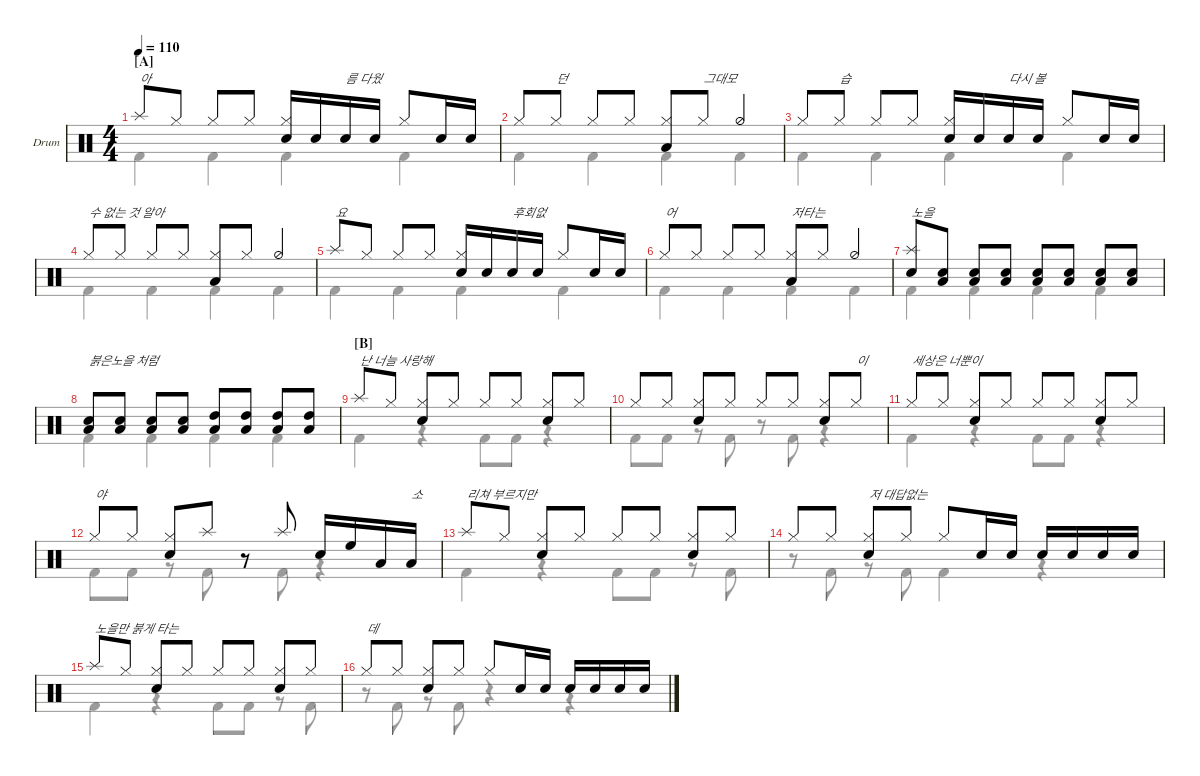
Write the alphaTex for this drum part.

\defaultSystemsLayout 4
\hideDynamics
\bracketExtendMode nobrackets
\firstSystemTrackNameOrientation horizontal
\track ("Drumkit" "Drum") {instrument percussion}
\staff {score}
\articulation defaults
\voice
\ts (4 4)
\section ("A" "")
\tempo 110
\clef neutral
\ks c "Splash (hit)".8{txt "아" dy mf beam Up} "Hi-Hat (closed)".8{beam Up} "Hi-Hat (closed)".8{beam Up} "Hi-Hat (closed)".8{beam Up}
("Hi-Hat (closed)" "Snare (hit) 2").16{beam Up} "Snare (hit) 2".16{beam Up} "Snare (hit) 2".16{txt "름 다웠" beam Up} "Snare (hit) 2".16{beam Up} "Hi-Hat (closed)".8{beam Up} "Snare (hit) 2".16{beam Up} "Snare (hit) 2".16{beam Up} |
"Hi-Hat (closed)".8{beam Up} "Hi-Hat (closed)".8{txt "던" beam Up} "Hi-Hat (closed)".8{beam Up} "Hi-Hat (closed)".8{beam Up} ("Hi-Hat (closed)" "Low Tom (hit)").8{beam Up} "Hi-Hat (closed)".8{txt "그대모" beam Up} "Hi-Hat (half)".4{beam Up} |
"Hi-Hat (closed)".8{beam Up} "Hi-Hat (closed)".8{txt "습" beam Up} "Hi-Hat (closed)".8{beam Up} "Hi-Hat (closed)".8{beam Up} ("Hi-Hat (closed)" "Snare (hit) 2").16{beam Up} "Snare (hit) 2".16{beam Up} "Snare (hit) 2".16{txt "다시 볼" beam Up} "Snare (hit) 2".16{beam Up} "Hi-Hat (closed)".8{beam Up} "Snare (hit) 2".16{beam Up} "Snare (hit) 2".16{beam Up} |
"Hi-Hat (closed)".8{txt "수 없는 것 알아" beam Up} "Hi-Hat (closed)".8{beam Up} "Hi-Hat (closed)".8{beam Up} "Hi-Hat (closed)".8{beam Up} ("Hi-Hat (closed)" "Low Tom (hit)").8{beam Up} "Hi-Hat (closed)".8{beam Up} "Hi-Hat (half)".4{beam Up} |
"Splash (hit)".8{txt "요" beam Up} "Hi-Hat (closed)".8{beam Up} "Hi-Hat (closed)".8{beam Up} "Hi-Hat (closed)".8{beam Up} ("Hi-Hat (closed)" "Snare (hit) 2").16{beam Up} "Snare (hit) 2".16{beam Up} "Snare (hit) 2".16{txt "후회없" beam Up} "Snare (hit) 2".16{beam Up} "Hi-Hat (closed)".8{beam Up} "Snare (hit) 2".16{beam Up} "Snare (hit) 2".16{beam Up} |
"Hi-Hat (closed)".8{txt "어" beam Up} "Hi-Hat (closed)".8{beam Up} "Hi-Hat (closed)".8{beam Up} "Hi-Hat (closed)".8{beam Up} ("Hi-Hat (closed)" "Low Tom (hit)").8{txt "저타는" beam Up} "Hi-Hat (closed)".8{beam Up} "Hi-Hat (half)".4{beam Up} |
("Splash (hit)" "Snare (hit) 2").8{txt "노을" beam Up} ("Snare (hit) 2" "Low Tom (hit)").8{beam Up} ("Snare (hit) 2" "Low Tom (hit)").8{beam Up} ("Snare (hit) 2" "Low Tom (hit)").8{beam Up} ("Snare (hit) 2" "Low Tom (hit)").8{beam Up} ("Snare (hit) 2" "Low Tom (hit)").8{beam Up} ("Snare (hit) 2" "Low Tom (hit)").8{beam Up} ("Snare (hit) 2" "Low Tom (hit)").8{beam Up} |
("Snare (hit) 2" "Low Tom (hit)").8{txt "붉은노을 처럼" beam Up} ("Snare (hit) 2" "Low Tom (hit)").8{beam Up} ("Snare (hit) 2" "Low Tom (hit)").8{beam Up} ("Snare (hit) 2" "Low Tom (hit)").8{beam Up} ("High Tom (hit)" "Low Tom (hit)").8{beam Up} ("High Tom (hit)" "Low Tom (hit)").8{beam Up} ("High Tom (hit)" "Low Tom (hit)").8{beam Up} ("High Tom (hit)" "Low Tom (hit)").8{beam Up} |
\section ("B" "")
"Splash (hit)".8{txt "난 너늘 사랑해" beam Up} "Hi-Hat (closed)".8{beam Up} ("Hi-Hat (closed)" "Snare (hit) 2").8{beam Up} "Hi-Hat (closed)".8{beam Up} "Hi-Hat (closed)".8{beam Up} "Hi-Hat (closed)".8{beam Up} ("Hi-Hat (closed)" "Snare (hit) 2").8{beam Up} "Hi-Hat (closed)".8{beam Up} |
"Hi-Hat (closed)".8{beam Up} "Hi-Hat (closed)".8{beam Up} ("Hi-Hat (closed)" "Snare (hit) 2").8{beam Up} "Hi-Hat (closed)".8{beam Up} "Hi-Hat (closed)".8{beam Up} "Hi-Hat (closed)".8{beam Up} ("Hi-Hat (closed)" "Snare (hit) 2").8{beam Up} "Hi-Hat (closed)".8{txt "이" beam Up} |
"Hi-Hat (closed)".8{txt "세상은 너뿐이" beam Up} "Hi-Hat (closed)".8{beam Up} ("Hi-Hat (closed)" "Snare (hit) 2").8{beam Up} "Hi-Hat (closed)".8{beam Up} "Hi-Hat (closed)".8{beam Up} "Hi-Hat (closed)".8{beam Up} ("Hi-Hat (closed)" "Snare (hit) 2").8{beam Up} "Hi-Hat (closed)".8{beam Up} |
"Hi-Hat (closed)".8{txt "야" beam Up} "Hi-Hat (closed)".8{beam Up} ("Hi-Hat (closed)" "Snare (hit) 2").8{beam Up} "Splash (hit)".8{beam Up} r.8{beam Up} "Splash (hit)".8{beam Up} "Snare (hit) 2".16{beam Up} "High Floor Tom (hit)".16{beam Up} "Low Tom (hit)".16{beam Up} "Low Tom (hit)".16{txt "소" beam Up} |
"Splash (hit)".8{txt "리쳐 부르지만" beam Up} "Hi-Hat (closed)".8{beam Up} ("Hi-Hat (closed)" "Snare (hit) 2").8{beam Up} "Hi-Hat (closed)".8{beam Up} "Hi-Hat (closed)".8{beam Up} "Hi-Hat (closed)".8{beam Up} ("Hi-Hat (closed)" "Snare (hit) 2").8{beam Up} "Hi-Hat (closed)".8{beam Up} |
"Hi-Hat (closed)".8{beam Up} "Hi-Hat (closed)".8{beam Up} ("Hi-Hat (closed)" "Snare (hit) 2").8{txt "저 대답없는" beam Up} "Hi-Hat (closed)".8{beam Up} "Hi-Hat (closed)".8{beam Up} "Snare (hit) 2".16{beam Up} "Snare (hit) 2".16{beam Up} "Snare (hit) 2".16{beam Up} "Snare (hit) 2".16{beam Up} "Snare (hit) 2".16{beam Up} "Snare (hit) 2".16{beam Up} |
"Splash (hit)".8{txt "노을만 붉게 타는" beam Up} "Hi-Hat (closed)".8{beam Up} ("Hi-Hat (closed)" "Snare (hit) 2").8{beam Up} "Hi-Hat (closed)".8{beam Up} "Hi-Hat (closed)".8{beam Up} "Hi-Hat (closed)".8{beam Up} ("Hi-Hat (closed)" "Snare (hit) 2").8{beam Up} "Hi-Hat (closed)".8{beam Up} |
"Hi-Hat (closed)".8{txt "데" beam Up} "Hi-Hat (closed)".8{beam Up} ("Hi-Hat (closed)" "Snare (hit) 2").8{beam Up} "Hi-Hat (closed)".8{beam Up} "Hi-Hat (closed)".8{beam Up} "Snare (hit) 2".16{beam Up} "Snare (hit) 2".16{beam Up} "Snare (hit) 2".16{beam Up} "Snare (hit) 2".16{beam Up} "Snare (hit) 2".16{beam Up} "Snare (hit) 2".16{beam Up}
\voice
\clef neutral
\ottava regular
\simile none
\ks c
|
|
|
|
|
|
|
|
|
|
|
|
|
|
|
\voice
\clef neutral
\ottava regular
\simile none
\ks c "Kick (hit) 2".4{dy mf beam Down} "Kick (hit) 2".4{beam Down} "Kick (hit) 2".4{beam Down} "Kick (hit) 2".4{beam Down}
|
"Kick (hit) 2".4{beam Down} "Kick (hit) 2".4{beam Down} "Kick (hit) 2".4{beam Down} "Kick (hit) 2".4{beam Down} |
"Kick (hit) 2".4{beam Down} "Kick (hit) 2".4{beam Down} "Kick (hit) 2".4{beam Down} "Kick (hit) 2".4{beam Down} |
"Kick (hit) 2".4{beam Down} "Kick (hit) 2".4{beam Down} "Kick (hit) 2".4{beam Down} "Kick (hit) 2".4{beam Down} |
"Kick (hit) 2".4{beam Down} "Kick (hit) 2".4{beam Down} "Kick (hit) 2".4{beam Down} "Kick (hit) 2".4{beam Down} |
"Kick (hit) 2".4{beam Down} "Kick (hit) 2".4{beam Down} "Kick (hit) 2".4{beam Down} "Kick (hit) 2".4{beam Down} |
"Kick (hit) 2".4{beam Down} "Kick (hit) 2".4{beam Down} "Kick (hit) 2".4{beam Down} "Kick (hit) 2".4{beam Down} |
"Kick (hit) 2".4{beam Down} "Kick (hit) 2".4{beam Down} "Kick (hit) 2".4{beam Down} "Kick (hit) 2".4{beam Down} |
"Kick (hit) 2".4{beam Down} r.4{beam Down} "Kick (hit) 2".8{beam Down} "Kick (hit) 2".8{beam Down} r.4{beam Down} |
"Kick (hit) 2".8{beam Down} "Kick (hit) 2".8{beam Down} r.8{beam Down} "Kick (hit) 2".8{beam Down} r.8{beam Down} "Kick (hit) 2".8{beam Down} r.4{beam Down} |
"Kick (hit) 2".4{beam Down} r.4{beam Down} "Kick (hit) 2".8{beam Down} "Kick (hit) 2".8{beam Down} r.4{beam Down} |
"Kick (hit) 2".8{beam Down} "Kick (hit) 2".8{beam Down} r.8{beam Down} "Kick (hit) 2".8{beam Down} r.8{beam Down} "Kick (hit) 2".8{beam Down} r.4{beam Down} |
"Kick (hit) 2".4{beam Down} r.4{beam Down} "Kick (hit) 2".8{beam Down} "Kick (hit) 2".8{beam Down} r.8{beam Down} "Kick (hit) 2".8{beam Down} |
r.8{beam Down} "Kick (hit) 2".8{beam Down} r.8{beam Down} "Kick (hit) 2".8{beam Down} "Kick (hit) 2".4{beam Down} r.4{beam Down} |
"Kick (hit) 2".4{beam Down} r.4{beam Down} "Kick (hit) 2".8{beam Down} "Kick (hit) 2".8{beam Down} r.8{beam Down} "Kick (hit) 2".8{beam Down} |
r.8{beam Down} "Kick (hit) 2".8{beam Down} r.8{beam Down} "Kick (hit) 2".8{beam Down} r.4{beam Down} r.4{beam Down}
